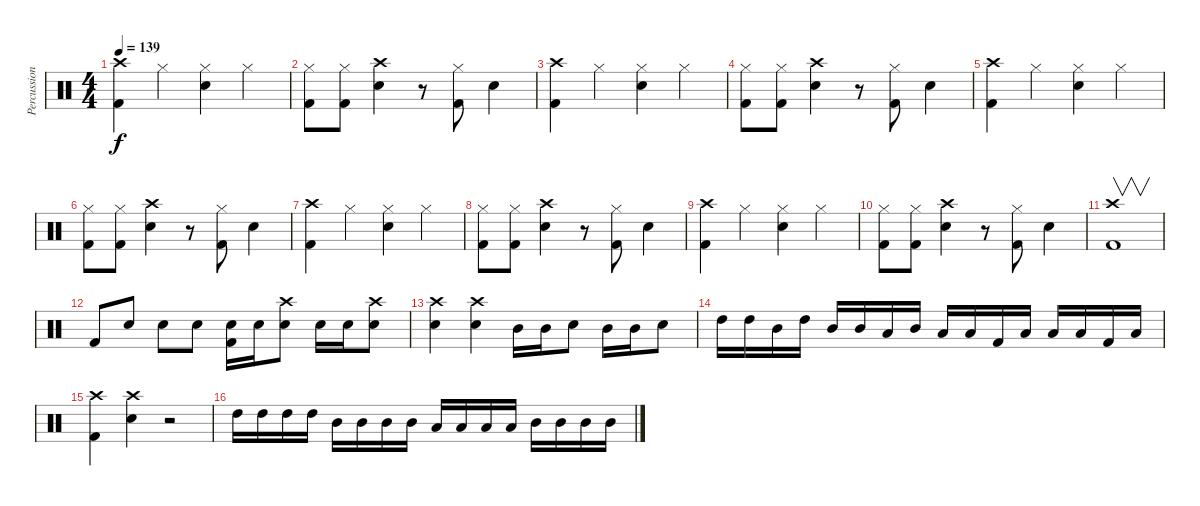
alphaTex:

\track ("Percussion" "Percussion") {instrument percussion}
\staff {score}
\articulation defaults
\ts (4 4)
\tempo 139
\clef neutral
\ks c
("Crash high (hit)" "Kick (hit) 2").4{dy f} "Hi-Hat (closed)".4 ("Hi-Hat (closed)" "Snare (hit) 2").4 "Hi-Hat (closed)".4 |
("Hi-Hat (closed)" "Kick (hit) 2").8 ("Hi-Hat (closed)" "Kick (hit) 2").8 ("Crash high (hit)" "Snare (hit) 2").4 r.8 ("Hi-Hat (closed)" "Kick (hit) 2").8 "Snare (hit) 2".4 |
("Crash high (hit)" "Kick (hit) 2").4 "Hi-Hat (closed)".4 ("Hi-Hat (closed)" "Snare (hit) 2").4 "Hi-Hat (closed)".4 |
("Hi-Hat (closed)" "Kick (hit) 2").8 ("Hi-Hat (closed)" "Kick (hit) 2").8 ("Crash high (hit)" "Snare (hit) 2").4 r.8 ("Hi-Hat (closed)" "Kick (hit) 2").8 "Snare (hit) 2".4 |
("Crash high (hit)" "Kick (hit) 2").4 "Hi-Hat (closed)".4 ("Hi-Hat (closed)" "Snare (hit) 2").4 "Hi-Hat (closed)".4 |
("Hi-Hat (closed)" "Kick (hit) 2").8 ("Hi-Hat (closed)" "Kick (hit) 2").8 ("Crash high (hit)" "Snare (hit) 2").4 r.8 ("Hi-Hat (closed)" "Kick (hit) 2").8 "Snare (hit) 2".4 |
("Crash high (hit)" "Kick (hit) 2").4 "Hi-Hat (closed)".4 ("Hi-Hat (closed)" "Snare (hit) 2").4 "Hi-Hat (closed)".4 |
("Hi-Hat (closed)" "Kick (hit) 2").8 ("Hi-Hat (closed)" "Kick (hit) 2").8 ("Crash high (hit)" "Snare (hit) 2").4 r.8 ("Hi-Hat (closed)" "Kick (hit) 2").8 "Snare (hit) 2".4 |
("Crash high (hit)" "Kick (hit) 2").4 "Hi-Hat (closed)".4 ("Hi-Hat (closed)" "Snare (hit) 2").4 "Hi-Hat (closed)".4 |
("Hi-Hat (closed)" "Kick (hit) 2").8 ("Hi-Hat (closed)" "Kick (hit) 2").8 ("Crash high (hit)" "Snare (hit) 2").4 r.8 ("Hi-Hat (closed)" "Kick (hit) 2").8 "Snare (hit) 2".4 |
("Crash high (hit)" "Kick (hit) 2").1{v} |
"Kick (hit) 2".8 "Snare (hit) 2".8 "Snare (hit) 2".8 "Snare (hit) 2".8 ("Snare (hit) 2" "Kick (hit) 2").16 "Snare (hit) 2".16 ("Crash high (hit)" "Snare (hit) 2").8 "Snare (hit) 2".16 "Snare (hit) 2".16 ("Crash high (hit)" "Snare (hit) 2").8 |
("Crash high (hit)" "Snare (hit) 2").4 ("Crash high (hit)" "Snare (hit) 2").4 "Mid Tom (hit)".16 "Mid Tom (hit)".16 "Snare (hit) 2".8 "Mid Tom (hit)".16 "Mid Tom (hit)".16 "Snare (hit) 2".8 |
"High Tom (hit)".16 "High Tom (hit)".16 "Mid Tom (hit)".16 "High Tom (hit)".16 "Mid Tom (hit)".16 "Mid Tom (hit)".16 "Low Tom (hit)".16 "Mid Tom (hit)".16 "Low Tom (hit)".16 "Low Tom (hit)".16 "Kick (hit) 2".16 "Low Tom (hit)".16 "Low Tom (hit)".16 "Low Tom (hit)".16 "Kick (hit) 2".16 "Low Tom (hit)".16 |
("Crash high (hit)" "Kick (hit) 2").4 ("Crash high (hit)" "Snare (hit) 2").4 r.2 |
"High Tom (hit)".16 "High Tom (hit)".16 "High Tom (hit)".16 "High Tom (hit)".16 "Mid Tom (hit)".16 "Mid Tom (hit)".16 "Mid Tom (hit)".16 "Mid Tom (hit)".16 "Low Tom (hit)".16 "Low Tom (hit)".16 "Low Tom (hit)".16 "Low Tom (hit)".16 "Mid Tom (hit)".16 "Mid Tom (hit)".16 "Mid Tom (hit)".16 "Mid Tom (hit)".16
